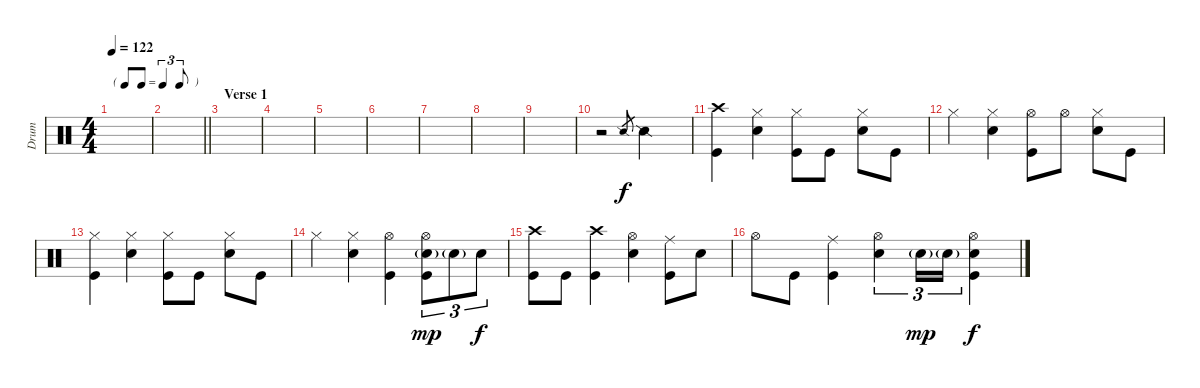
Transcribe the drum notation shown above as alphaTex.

\track ("Drum" "Drum") {instrument percussion}
\staff {score}
\articulation defaults
\ts (4 4)
\tf triplet8th
\tempo 122
\clef neutral
\ks c
|
\barLineRight lightlight
|
\section ("" "Verse 1")
|
|
|
|
|
|
|
r.2 "Snare (side stick) 2".8{gr} "Snare (side stick) 2".2 |
("Crash high (hit)" "Kick (hit)").4 ("Hi-Hat (closed)" "Electric Snare (hit)").4 ("Hi-Hat (closed)" "Kick (hit)").8 "Kick (hit)".8 ("Hi-Hat (closed)" "Electric Snare (hit)").8 "Kick (hit)".8 |
"Hi-Hat (closed)".4 ("Hi-Hat (closed)" "Electric Snare (hit)").4 ("Hi-Hat (open)" "Kick (hit)").8 "Hi-Hat (open)".8 ("Hi-Hat (closed)" "Electric Snare (hit)").8 "Kick (hit)".8 |
("Hi-Hat (closed)" "Kick (hit)").4 ("Hi-Hat (closed)" "Electric Snare (hit)").4 ("Hi-Hat (closed)" "Kick (hit)").8 "Kick (hit)".8 ("Hi-Hat (closed)" "Electric Snare (hit)").8 "Kick (hit)".8 |
"Hi-Hat (closed)".4 ("Hi-Hat (closed)" "Electric Snare (hit)").4 ("Hi-Hat (open)" "Kick (hit)").4 ("Hi-Hat (open)" "Electric Snare (hit)"{g} "Kick (hit)").8{tu (3 2) dy mp} "Electric Snare (hit)"{g}.8{tu (3 2)} "Electric Snare (hit)".8{tu (3 2) dy f} |
("Crash high (hit)" "Kick (hit)").8 "Kick (hit)".8 ("Crash high (hit)" "Kick (hit)").4 ("Hi-Hat (open)" "Electric Snare (hit)").4 ("Ride (middle)" "Kick (hit)").8 "Electric Snare (hit)".8 |
"Hi-Hat (open)".8 "Kick (hit)".8 ("Ride (middle)" "Kick (hit)").4 ("Hi-Hat (open)" "Electric Snare (hit)").4{tu (3 2)} "Electric Snare (hit)"{g}.16{tu (3 2) dy mp} "Electric Snare (hit)"{g}.16{tu (3 2)} ("Hi-Hat (open)" "Electric Snare (hit)" "Kick (hit)").4{dy f}
